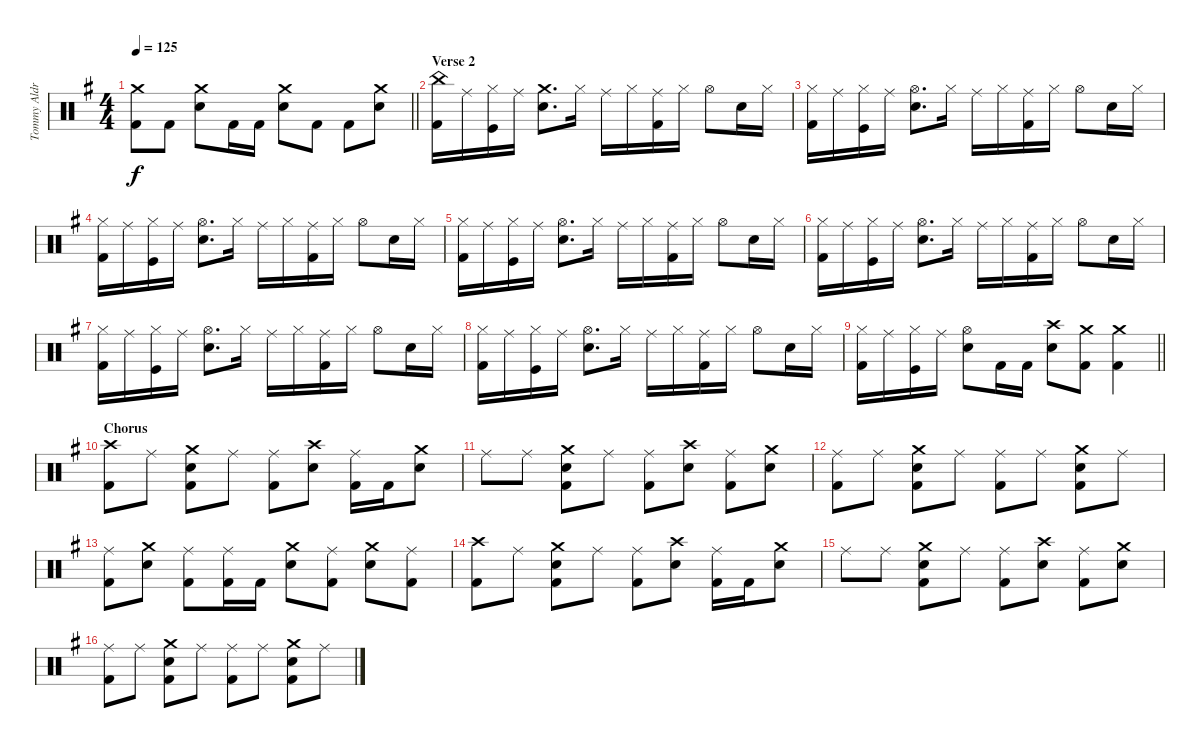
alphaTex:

\track ("Tommy Aldridge" "Tommy Aldr") {instrument percussion}
\staff {score}
\articulation defaults
\ts (4 4)
\tempo 125
\clef neutral
\barLineRight lightlight
\ks eminor
("Crash medium (hit)" "Kick (hit) 2").8{dy f} "Kick (hit) 2".8 ("Crash medium (hit)" "Snare (hit) 2").8 "Kick (hit) 2".16 "Kick (hit) 2".16 ("Crash medium (hit)" "Snare (hit) 2").8 "Kick (hit) 2".8 "Kick (hit) 2".8 ("Crash medium (hit)" "Snare (hit) 2").8 |
\section ("" "Verse 2")
("China (hit)" "Kick (hit) 2").16 "Ride (middle)".16 ("Hi-Hat (closed)" "Kick (hit)").16 "Ride (middle)".16 ("Crash medium (hit)" "Snare (hit) 2").8{d} "Hi-Hat (closed)".16 "Ride (middle)".16 "Hi-Hat (closed)".16 ("Ride (middle)" "Kick (hit) 2").16 "Hi-Hat (closed)".16 "Hi-Hat (open)".8 "Snare (hit) 2".16 "Hi-Hat (closed)".16 |
("Hi-Hat (closed)" "Kick (hit) 2").16 "Ride (middle)".16 ("Hi-Hat (closed)" "Kick (hit)").16 "Ride (middle)".16 ("Hi-Hat (open)" "Snare (hit) 2").8{d} "Hi-Hat (closed)".16 "Ride (middle)".16 "Hi-Hat (closed)".16 ("Ride (middle)" "Kick (hit) 2").16 "Hi-Hat (closed)".16 "Hi-Hat (open)".8 "Snare (hit) 2".16 "Hi-Hat (closed)".16 |
("Hi-Hat (closed)" "Kick (hit) 2").16 "Ride (middle)".16 ("Hi-Hat (closed)" "Kick (hit)").16 "Ride (middle)".16 ("Hi-Hat (open)" "Snare (hit) 2").8{d} "Hi-Hat (closed)".16 "Ride (middle)".16 "Hi-Hat (closed)".16 ("Ride (middle)" "Kick (hit) 2").16 "Hi-Hat (closed)".16 "Hi-Hat (open)".8 "Snare (hit) 2".16 "Hi-Hat (closed)".16 |
("Hi-Hat (closed)" "Kick (hit) 2").16 "Ride (middle)".16 ("Hi-Hat (closed)" "Kick (hit)").16 "Ride (middle)".16 ("Hi-Hat (open)" "Snare (hit) 2").8{d} "Hi-Hat (closed)".16 "Ride (middle)".16 "Hi-Hat (closed)".16 ("Ride (middle)" "Kick (hit) 2").16 "Hi-Hat (closed)".16 "Hi-Hat (open)".8 "Snare (hit) 2".16 "Hi-Hat (closed)".16 |
("Hi-Hat (closed)" "Kick (hit) 2").16 "Ride (middle)".16 ("Hi-Hat (closed)" "Kick (hit)").16 "Ride (middle)".16 ("Hi-Hat (open)" "Snare (hit) 2").8{d} "Hi-Hat (closed)".16 "Ride (middle)".16 "Hi-Hat (closed)".16 ("Ride (middle)" "Kick (hit) 2").16 "Hi-Hat (closed)".16 "Hi-Hat (open)".8 "Snare (hit) 2".16 "Hi-Hat (closed)".16 |
("Hi-Hat (closed)" "Kick (hit) 2").16 "Ride (middle)".16 ("Hi-Hat (closed)" "Kick (hit)").16 "Ride (middle)".16 ("Hi-Hat (open)" "Snare (hit) 2").8{d} "Hi-Hat (closed)".16 "Ride (middle)".16 "Hi-Hat (closed)".16 ("Ride (middle)" "Kick (hit) 2").16 "Hi-Hat (closed)".16 "Hi-Hat (open)".8 "Snare (hit) 2".16 "Hi-Hat (closed)".16 |
("Hi-Hat (closed)" "Kick (hit) 2").16 "Ride (middle)".16 ("Hi-Hat (closed)" "Kick (hit)").16 "Ride (middle)".16 ("Hi-Hat (open)" "Snare (hit) 2").8{d} "Hi-Hat (closed)".16 "Ride (middle)".16 "Hi-Hat (closed)".16 ("Ride (middle)" "Kick (hit) 2").16 "Hi-Hat (closed)".16 "Hi-Hat (open)".8 "Snare (hit) 2".16 "Hi-Hat (closed)".16 |
\barLineRight lightlight
("Hi-Hat (closed)" "Kick (hit) 2").16 "Ride (middle)".16 ("Hi-Hat (closed)" "Kick (hit)").16 "Ride (middle)".16 ("Hi-Hat (open)" "Snare (hit) 2").8 "Kick (hit) 2".16 "Kick (hit) 2".16 ("Crash high (hit)" "Snare (hit) 2").8 ("Crash medium (hit)" "Kick (hit) 2").8 ("Crash medium (hit)" "Kick (hit) 2").4 |
\section ("" "Chorus")
("Crash high (hit)" "Kick (hit) 2").8 "Ride (middle)".8 ("Crash medium (hit)" "Snare (hit) 2" "Kick (hit) 2").8 "Ride (middle)".8 ("Ride (middle)" "Kick (hit) 2").8 ("Crash high (hit)" "Snare (hit) 2").8 ("Ride (middle)" "Kick (hit) 2").16 "Kick (hit) 2".16 ("Crash medium (hit)" "Snare (hit) 2").8 |
"Ride (middle)".8 "Ride (middle)".8 ("Crash medium (hit)" "Snare (hit) 2" "Kick (hit) 2").8 "Ride (middle)".8 ("Ride (middle)" "Kick (hit) 2").8 ("Crash high (hit)" "Snare (hit) 2").8 ("Ride (middle)" "Kick (hit) 2").8 ("Crash medium (hit)" "Snare (hit) 2").8 |
("Ride (middle)" "Kick (hit) 2").8 "Ride (middle)".8 ("Crash medium (hit)" "Snare (hit) 2" "Kick (hit) 2").8 "Ride (middle)".8 ("Ride (middle)" "Kick (hit) 2").8 "Ride (middle)".8 ("Crash medium (hit)" "Snare (hit) 2" "Kick (hit) 2").8 "Ride (middle)".8 |
("Ride (middle)" "Kick (hit) 2").8 ("Crash medium (hit)" "Snare (hit) 2").8 ("Ride (middle)" "Kick (hit) 2").8 ("Ride (middle)" "Kick (hit) 2").16 "Kick (hit) 2".16 ("Crash medium (hit)" "Snare (hit) 2").8 ("Ride (middle)" "Kick (hit) 2").8 ("Crash medium (hit)" "Snare (hit) 2").8 ("Ride (middle)" "Kick (hit) 2").8 |
("Crash high (hit)" "Kick (hit) 2").8 "Ride (middle)".8 ("Crash medium (hit)" "Snare (hit) 2" "Kick (hit) 2").8 "Ride (middle)".8 ("Ride (middle)" "Kick (hit) 2").8 ("Crash high (hit)" "Snare (hit) 2").8 ("Ride (middle)" "Kick (hit) 2").16 "Kick (hit) 2".16 ("Crash medium (hit)" "Snare (hit) 2").8 |
"Ride (middle)".8 "Ride (middle)".8 ("Crash medium (hit)" "Snare (hit) 2" "Kick (hit) 2").8 "Ride (middle)".8 ("Ride (middle)" "Kick (hit) 2").8 ("Crash high (hit)" "Snare (hit) 2").8 ("Ride (middle)" "Kick (hit) 2").8 ("Crash medium (hit)" "Snare (hit) 2").8 |
("Ride (middle)" "Kick (hit) 2").8 "Ride (middle)".8 ("Crash medium (hit)" "Snare (hit) 2" "Kick (hit) 2").8 "Ride (middle)".8 ("Ride (middle)" "Kick (hit) 2").8 "Ride (middle)".8 ("Crash medium (hit)" "Snare (hit) 2" "Kick (hit) 2").8 "Ride (middle)".8
